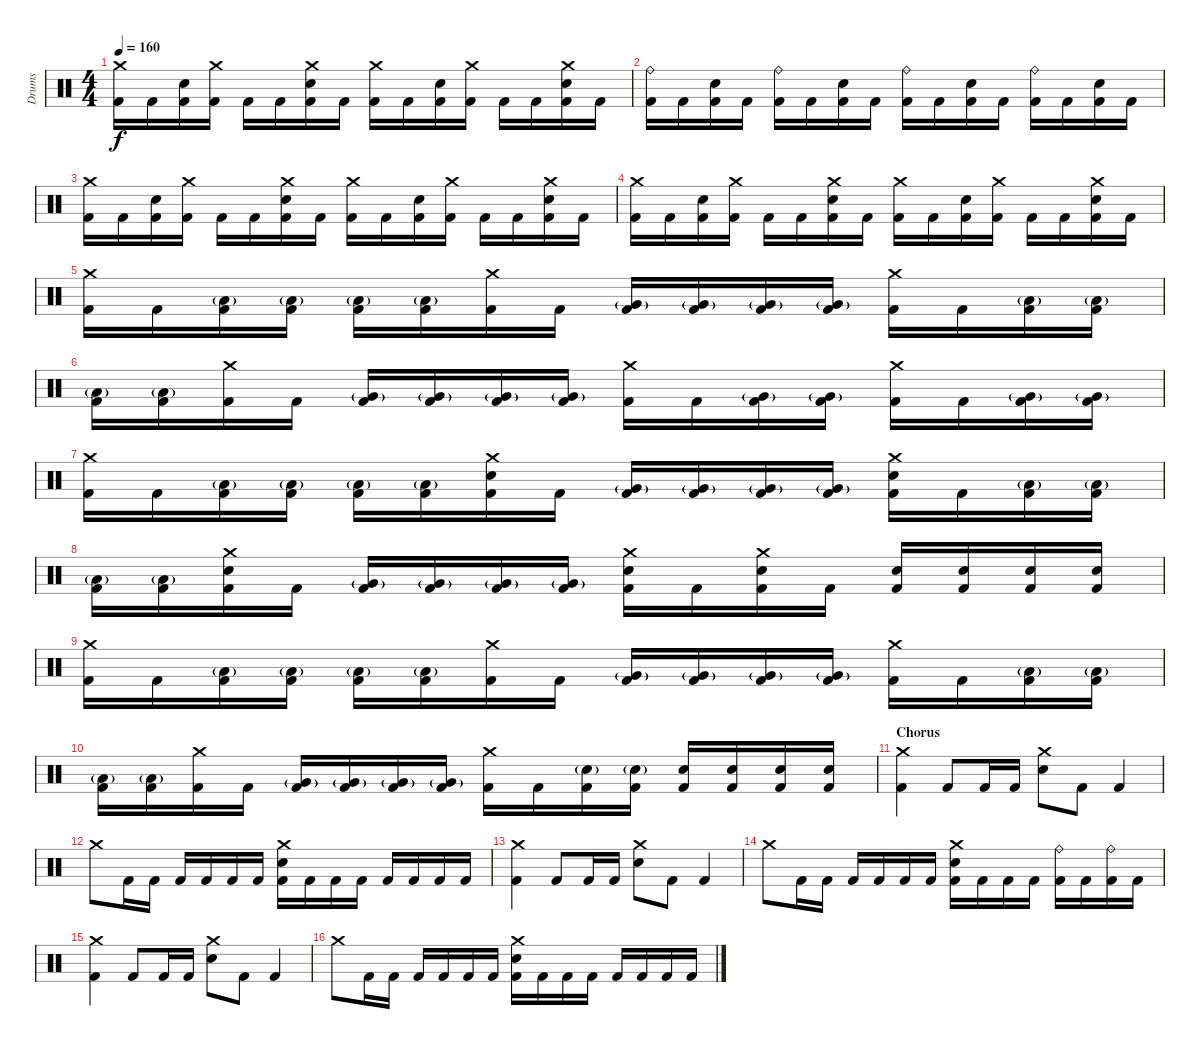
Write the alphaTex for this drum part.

\track ("Drums" "Drums") {instrument percussion}
\staff {score}
\articulation defaults
\ts (4 4)
\tempo 160
\clef neutral
\ks c
("Crash medium (hit)" "Kick (hit) 2").16{dy f} "Kick (hit) 2".16 ("Snare (hit) 2" "Kick (hit) 2").16 ("Crash medium (hit)" "Kick (hit) 2").16 "Kick (hit) 2".16 "Kick (hit) 2".16 ("Crash medium (hit)" "Snare (hit) 2" "Kick (hit) 2").16 "Kick (hit) 2".16 ("Crash medium (hit)" "Kick (hit) 2").16 "Kick (hit) 2".16 ("Snare (hit) 2" "Kick (hit) 2").16 ("Crash medium (hit)" "Kick (hit) 2").16 "Kick (hit) 2".16 "Kick (hit) 2".16 ("Crash medium (hit)" "Snare (hit) 2" "Kick (hit) 2").16 "Kick (hit) 2".16 |
("Ride (bell)" "Kick (hit) 2").16 "Kick (hit) 2".16 ("Snare (hit) 2" "Kick (hit) 2").16 "Kick (hit) 2".16 ("Ride (bell)" "Kick (hit) 2").16 "Kick (hit) 2".16 ("Snare (hit) 2" "Kick (hit) 2").16 "Kick (hit) 2".16 ("Ride (bell)" "Kick (hit) 2").16 "Kick (hit) 2".16 ("Snare (hit) 2" "Kick (hit) 2").16 "Kick (hit) 2".16 ("Ride (bell)" "Kick (hit) 2").16 "Kick (hit) 2".16 ("Snare (hit) 2" "Kick (hit) 2").16 "Kick (hit) 2".16 |
("Crash medium (hit)" "Kick (hit) 2").16 "Kick (hit) 2".16 ("Snare (hit) 2" "Kick (hit) 2").16 ("Crash medium (hit)" "Kick (hit) 2").16 "Kick (hit) 2".16 "Kick (hit) 2".16 ("Crash medium (hit)" "Snare (hit) 2" "Kick (hit) 2").16 "Kick (hit) 2".16 ("Crash medium (hit)" "Kick (hit) 2").16 "Kick (hit) 2".16 ("Snare (hit) 2" "Kick (hit) 2").16 ("Crash medium (hit)" "Kick (hit) 2").16 "Kick (hit) 2".16 "Kick (hit) 2".16 ("Crash medium (hit)" "Snare (hit) 2" "Kick (hit) 2").16 "Kick (hit) 2".16 |
("Crash medium (hit)" "Kick (hit) 2").16 "Kick (hit) 2".16 ("Snare (hit) 2" "Kick (hit) 2").16 ("Crash medium (hit)" "Kick (hit) 2").16 "Kick (hit) 2".16 "Kick (hit) 2".16 ("Crash medium (hit)" "Snare (hit) 2" "Kick (hit) 2").16 "Kick (hit) 2".16 ("Crash medium (hit)" "Kick (hit) 2").16 "Kick (hit) 2".16 ("Snare (hit) 2" "Kick (hit) 2").16 ("Crash medium (hit)" "Kick (hit) 2").16 "Kick (hit) 2".16 "Kick (hit) 2".16 ("Crash medium (hit)" "Snare (hit) 2" "Kick (hit) 2").16 "Kick (hit) 2".16 |
("Crash medium (hit)" "Kick (hit) 2").16 "Kick (hit) 2".16 ("Low Tom (hit)"{g} "Kick (hit) 2").16 ("Low Tom (hit)"{g} "Kick (hit) 2").16 ("Low Tom (hit)"{g} "Kick (hit) 2").16 ("Low Tom (hit)"{g} "Kick (hit) 2").16 ("Crash medium (hit)" "Kick (hit) 2").16 "Kick (hit) 2".16 ("Very Low Tom (hit)"{g} "Kick (hit) 2").16 ("Very Low Tom (hit)"{g} "Kick (hit) 2").16 ("Very Low Tom (hit)"{g} "Kick (hit) 2").16 ("Very Low Tom (hit)"{g} "Kick (hit) 2").16 ("Crash medium (hit)" "Kick (hit) 2").16 "Kick (hit) 2".16 ("Low Tom (hit)"{g} "Kick (hit) 2").16 ("Low Tom (hit)"{g} "Kick (hit) 2").16 |
("Low Tom (hit)"{g} "Kick (hit) 2").16 ("Low Tom (hit)"{g} "Kick (hit) 2").16 ("Crash medium (hit)" "Kick (hit) 2").16 "Kick (hit) 2".16 ("Very Low Tom (hit)"{g} "Kick (hit) 2").16 ("Very Low Tom (hit)"{g} "Kick (hit) 2").16 ("Very Low Tom (hit)"{g} "Kick (hit) 2").16 ("Very Low Tom (hit)"{g} "Kick (hit) 2").16 ("Crash medium (hit)" "Kick (hit) 2").16 "Kick (hit) 2".16 ("Very Low Tom (hit)"{g} "Kick (hit) 2").16 ("Very Low Tom (hit)"{g} "Kick (hit) 2").16 ("Crash medium (hit)" "Kick (hit) 2").16 "Kick (hit) 2".16 ("Very Low Tom (hit)"{g} "Kick (hit) 2").16 ("Very Low Tom (hit)"{g} "Kick (hit) 2").16 |
("Crash medium (hit)" "Kick (hit) 2").16 "Kick (hit) 2".16 ("Low Tom (hit)"{g} "Kick (hit) 2").16 ("Low Tom (hit)"{g} "Kick (hit) 2").16 ("Low Tom (hit)"{g} "Kick (hit) 2").16 ("Low Tom (hit)"{g} "Kick (hit) 2").16 ("Crash medium (hit)" "Snare (hit) 2" "Kick (hit) 2").16 "Kick (hit) 2".16 ("Very Low Tom (hit)"{g} "Kick (hit) 2").16 ("Very Low Tom (hit)"{g} "Kick (hit) 2").16 ("Very Low Tom (hit)"{g} "Kick (hit) 2").16 ("Very Low Tom (hit)"{g} "Kick (hit) 2").16 ("Crash medium (hit)" "Snare (hit) 2" "Kick (hit) 2").16 "Kick (hit) 2".16 ("Low Tom (hit)"{g} "Kick (hit) 2").16 ("Low Tom (hit)"{g} "Kick (hit) 2").16 |
("Low Tom (hit)"{g} "Kick (hit) 2").16 ("Low Tom (hit)"{g} "Kick (hit) 2").16 ("Crash medium (hit)" "Snare (hit) 2" "Kick (hit) 2").16 "Kick (hit) 2".16 ("Very Low Tom (hit)"{g} "Kick (hit) 2").16 ("Very Low Tom (hit)"{g} "Kick (hit) 2").16 ("Very Low Tom (hit)"{g} "Kick (hit) 2").16 ("Very Low Tom (hit)"{g} "Kick (hit) 2").16 ("Crash medium (hit)" "Snare (hit) 2" "Kick (hit) 2").16 "Kick (hit) 2".16 ("Crash medium (hit)" "Snare (hit) 2" "Kick (hit) 2").16 "Kick (hit) 2".16 ("Snare (hit) 2" "Kick (hit) 2").16 ("Snare (hit) 2" "Kick (hit) 2").16 ("Snare (hit) 2" "Kick (hit) 2").16 ("Snare (hit) 2" "Kick (hit) 2").16 |
("Crash medium (hit)" "Kick (hit) 2").16 "Kick (hit) 2".16 ("Low Tom (hit)"{g} "Kick (hit) 2").16 ("Low Tom (hit)"{g} "Kick (hit) 2").16 ("Low Tom (hit)"{g} "Kick (hit) 2").16 ("Low Tom (hit)"{g} "Kick (hit) 2").16 ("Crash medium (hit)" "Kick (hit) 2").16 "Kick (hit) 2".16 ("Very Low Tom (hit)"{g} "Kick (hit) 2").16 ("Very Low Tom (hit)"{g} "Kick (hit) 2").16 ("Very Low Tom (hit)"{g} "Kick (hit) 2").16 ("Very Low Tom (hit)"{g} "Kick (hit) 2").16 ("Crash medium (hit)" "Kick (hit) 2").16 "Kick (hit) 2".16 ("Low Tom (hit)"{g} "Kick (hit) 2").16 ("Low Tom (hit)"{g} "Kick (hit) 2").16 |
("Low Tom (hit)"{g} "Kick (hit) 2").16 ("Low Tom (hit)"{g} "Kick (hit) 2").16 ("Crash medium (hit)" "Kick (hit) 2").16 "Kick (hit) 2".16 ("Very Low Tom (hit)"{g} "Kick (hit) 2").16 ("Very Low Tom (hit)"{g} "Kick (hit) 2").16 ("Very Low Tom (hit)"{g} "Kick (hit) 2").16 ("Very Low Tom (hit)"{g} "Kick (hit) 2").16 ("Crash medium (hit)" "Kick (hit) 2").16 "Kick (hit) 2".16 ("Snare (hit) 2"{g} "Kick (hit) 2").16 ("Snare (hit) 2"{g} "Kick (hit) 2").16 ("Snare (hit) 2" "Kick (hit) 2").16 ("Snare (hit) 2" "Kick (hit) 2").16 ("Snare (hit) 2" "Kick (hit) 2").16 ("Snare (hit) 2" "Kick (hit) 2").16 |
\section ("" "Chorus")
("Crash medium (hit)" "Kick (hit) 2").4 "Kick (hit) 2".8 "Kick (hit) 2".16 "Kick (hit) 2".16 ("Crash medium (hit)" "Snare (hit) 2").8 "Kick (hit) 2".8 "Kick (hit) 2".4 |
"Crash medium (hit)".8 "Kick (hit) 2".16 "Kick (hit) 2".16 "Kick (hit) 2".16 "Kick (hit) 2".16 "Kick (hit) 2".16 "Kick (hit) 2".16 ("Crash medium (hit)" "Snare (hit) 2" "Kick (hit) 2").16 "Kick (hit) 2".16 "Kick (hit) 2".16 "Kick (hit) 2".16 "Kick (hit) 2".16 "Kick (hit) 2".16 "Kick (hit) 2".16 "Kick (hit) 2".16 |
("Crash medium (hit)" "Kick (hit) 2").4 "Kick (hit) 2".8 "Kick (hit) 2".16 "Kick (hit) 2".16 ("Crash medium (hit)" "Snare (hit) 2").8 "Kick (hit) 2".8 "Kick (hit) 2".4 |
"Crash medium (hit)".8 "Kick (hit) 2".16 "Kick (hit) 2".16 "Kick (hit) 2".16 "Kick (hit) 2".16 "Kick (hit) 2".16 "Kick (hit) 2".16 ("Crash medium (hit)" "Snare (hit) 2" "Kick (hit) 2").16 "Kick (hit) 2".16 "Kick (hit) 2".16 "Kick (hit) 2".16 ("Ride (bell)" "Kick (hit) 2").16 "Kick (hit) 2".16 ("Ride (bell)" "Kick (hit) 2").16 "Kick (hit) 2".16 |
("Crash medium (hit)" "Kick (hit) 2").4 "Kick (hit) 2".8 "Kick (hit) 2".16 "Kick (hit) 2".16 ("Crash medium (hit)" "Snare (hit) 2").8 "Kick (hit) 2".8 "Kick (hit) 2".4 |
"Crash medium (hit)".8 "Kick (hit) 2".16 "Kick (hit) 2".16 "Kick (hit) 2".16 "Kick (hit) 2".16 "Kick (hit) 2".16 "Kick (hit) 2".16 ("Crash medium (hit)" "Snare (hit) 2" "Kick (hit) 2").16 "Kick (hit) 2".16 "Kick (hit) 2".16 "Kick (hit) 2".16 "Kick (hit) 2".16 "Kick (hit) 2".16 "Kick (hit) 2".16 "Kick (hit) 2".16
